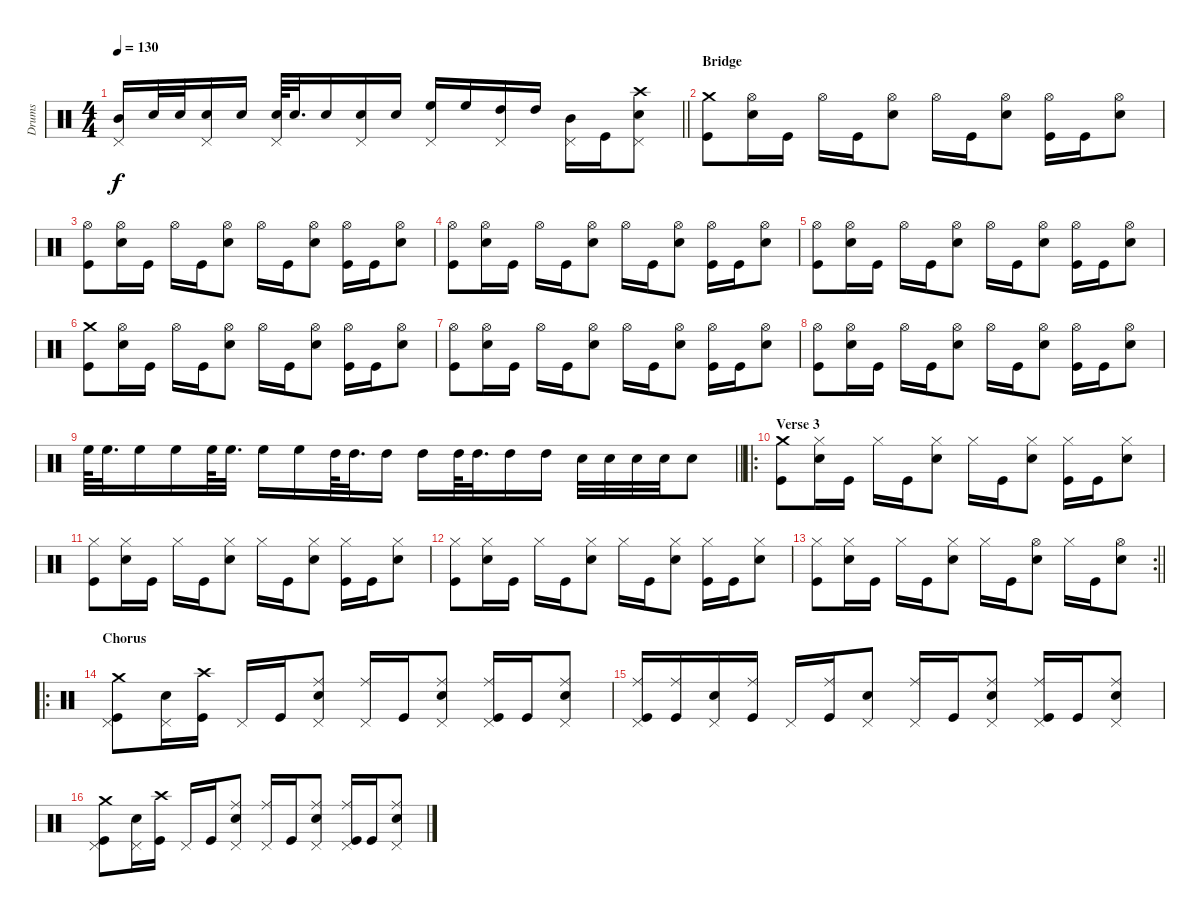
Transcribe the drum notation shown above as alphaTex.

\track ("Drums" "Drums") {instrument percussion}
\staff {score}
\articulation defaults
\ts (4 4)
\tempo 130
\clef neutral
\barLineRight lightlight
\ks c
("Mid Tom (hit)" "Pedal Hi-Hat (hit)").16{dy f} "Snare (hit) 2".32 "Snare (hit) 2".32 ("Snare (hit) 2" "Pedal Hi-Hat (hit)").16 "Snare (hit) 2".16 ("Snare (hit) 2" "Pedal Hi-Hat (hit)").64 "Snare (hit) 2".32{d} "Snare (hit) 2".16 ("Snare (hit) 2" "Pedal Hi-Hat (hit)").16 "Snare (hit) 2".16 ("High Floor Tom (hit)" "Pedal Hi-Hat (hit)").16 "High Floor Tom (hit)".16 ("High Tom (hit)" "Pedal Hi-Hat (hit)").16 "High Tom (hit)".16 ("Mid Tom (hit)" "Pedal Hi-Hat (hit)").16 "Kick (hit)".16 ("Crash high (hit)" "Snare (hit) 2" "Pedal Hi-Hat (hit)").8 |
\section ("" "Bridge")
("Crash medium (hit)" "Kick (hit)").8 ("Hi-Hat (open)" "Snare (hit) 2").16 "Kick (hit)".16 "Hi-Hat (open)".16 "Kick (hit)".16 ("Hi-Hat (open)" "Snare (hit) 2").8 "Hi-Hat (open)".16 "Kick (hit)".16 ("Hi-Hat (open)" "Snare (hit) 2").8 ("Hi-Hat (open)" "Kick (hit)").16 "Kick (hit)".16 ("Hi-Hat (open)" "Snare (hit) 2").8 |
("Hi-Hat (open)" "Kick (hit)").8 ("Hi-Hat (open)" "Snare (hit) 2").16 "Kick (hit)".16 "Hi-Hat (open)".16 "Kick (hit)".16 ("Hi-Hat (open)" "Snare (hit) 2").8 "Hi-Hat (open)".16 "Kick (hit)".16 ("Hi-Hat (open)" "Snare (hit) 2").8 ("Hi-Hat (open)" "Kick (hit)").16 "Kick (hit)".16 ("Hi-Hat (open)" "Snare (hit) 2").8 |
("Hi-Hat (open)" "Kick (hit)").8 ("Hi-Hat (open)" "Snare (hit) 2").16 "Kick (hit)".16 "Hi-Hat (open)".16 "Kick (hit)".16 ("Hi-Hat (open)" "Snare (hit) 2").8 "Hi-Hat (open)".16 "Kick (hit)".16 ("Hi-Hat (open)" "Snare (hit) 2").8 ("Hi-Hat (open)" "Kick (hit)").16 "Kick (hit)".16 ("Hi-Hat (open)" "Snare (hit) 2").8 |
("Hi-Hat (open)" "Kick (hit)").8 ("Hi-Hat (open)" "Snare (hit) 2").16 "Kick (hit)".16 "Hi-Hat (open)".16 "Kick (hit)".16 ("Hi-Hat (open)" "Snare (hit) 2").8 "Hi-Hat (open)".16 "Kick (hit)".16 ("Hi-Hat (open)" "Snare (hit) 2").8 ("Hi-Hat (open)" "Kick (hit)").16 "Kick (hit)".16 ("Hi-Hat (open)" "Snare (hit) 2").8 |
("Crash medium (hit)" "Kick (hit)").8 ("Hi-Hat (open)" "Snare (hit) 2").16 "Kick (hit)".16 "Hi-Hat (open)".16 "Kick (hit)".16 ("Hi-Hat (open)" "Snare (hit) 2").8 "Hi-Hat (open)".16 "Kick (hit)".16 ("Hi-Hat (open)" "Snare (hit) 2").8 ("Hi-Hat (open)" "Kick (hit)").16 "Kick (hit)".16 ("Hi-Hat (open)" "Snare (hit) 2").8 |
("Hi-Hat (open)" "Kick (hit)").8 ("Hi-Hat (open)" "Snare (hit) 2").16 "Kick (hit)".16 "Hi-Hat (open)".16 "Kick (hit)".16 ("Hi-Hat (open)" "Snare (hit) 2").8 "Hi-Hat (open)".16 "Kick (hit)".16 ("Hi-Hat (open)" "Snare (hit) 2").8 ("Hi-Hat (open)" "Kick (hit)").16 "Kick (hit)".16 ("Hi-Hat (open)" "Snare (hit) 2").8 |
("Hi-Hat (open)" "Kick (hit)").8 ("Hi-Hat (open)" "Snare (hit) 2").16 "Kick (hit)".16 "Hi-Hat (open)".16 "Kick (hit)".16 ("Hi-Hat (open)" "Snare (hit) 2").8 "Hi-Hat (open)".16 "Kick (hit)".16 ("Hi-Hat (open)" "Snare (hit) 2").8 ("Hi-Hat (open)" "Kick (hit)").16 "Kick (hit)".16 ("Hi-Hat (open)" "Snare (hit) 2").8 |
\barLineRight lightlight "High Floor Tom (hit)".64 "High Floor Tom (hit)".32{d} "High Floor Tom (hit)".16 "High Floor Tom (hit)".16 "High Floor Tom (hit)".64 "High Floor Tom (hit)".32{d} "High Floor Tom (hit)".16 "High Floor Tom (hit)".16 "High Tom (hit)".64 "High Tom (hit)".32{d} "High Tom (hit)".16 "High Tom (hit)".16 "High Tom (hit)".64 "High Tom (hit)".32{d} "High Tom (hit)".16 "High Tom (hit)".16 "Snare (hit) 2".32 "Snare (hit) 2".32 "Snare (hit) 2".32 "Snare (hit) 2".32 "Snare (hit) 2".8
|
\ro
\section ("" "Verse 3")
("Crash medium (hit)" "Kick (hit)").8 ("Hi-Hat (closed)" "Snare (hit) 2").16 "Kick (hit)".16 "Hi-Hat (closed)".16 "Kick (hit)".16 ("Hi-Hat (closed)" "Snare (hit) 2").8 "Hi-Hat (closed)".16 "Kick (hit)".16 ("Hi-Hat (closed)" "Snare (hit) 2").8 ("Hi-Hat (closed)" "Kick (hit)").16 "Kick (hit)".16 ("Hi-Hat (closed)" "Snare (hit) 2").8 |
("Hi-Hat (closed)" "Kick (hit)").8 ("Hi-Hat (closed)" "Snare (hit) 2").16 "Kick (hit)".16 "Hi-Hat (closed)".16 "Kick (hit)".16 ("Hi-Hat (closed)" "Snare (hit) 2").8 "Hi-Hat (closed)".16 "Kick (hit)".16 ("Hi-Hat (closed)" "Snare (hit) 2").8 ("Hi-Hat (closed)" "Kick (hit)").16 "Kick (hit)".16 ("Hi-Hat (closed)" "Snare (hit) 2").8 |
("Hi-Hat (closed)" "Kick (hit)").8 ("Hi-Hat (closed)" "Snare (hit) 2").16 "Kick (hit)".16 "Hi-Hat (closed)".16 "Kick (hit)".16 ("Hi-Hat (closed)" "Snare (hit) 2").8 "Hi-Hat (closed)".16 "Kick (hit)".16 ("Hi-Hat (closed)" "Snare (hit) 2").8 ("Hi-Hat (closed)" "Kick (hit)").16 "Kick (hit)".16 ("Hi-Hat (closed)" "Snare (hit) 2").8 |
\rc 2
\barLineRight lightlight
("Hi-Hat (closed)" "Kick (hit)").8 ("Hi-Hat (closed)" "Snare (hit) 2").16 "Kick (hit)".16 "Hi-Hat (closed)".16 "Kick (hit)".16 ("Hi-Hat (closed)" "Snare (hit) 2").8 "Hi-Hat (closed)".16 "Kick (hit)".16 ("Hi-Hat (open)" "Snare (hit) 2").8 "Hi-Hat (closed)".16 "Kick (hit)".16 ("Hi-Hat (open)" "Snare (hit) 2").8 |
\ro
\section ("" "Chorus")
("Crash medium (hit)" "Pedal Hi-Hat (hit)" "Kick (hit)").8 ("Snare (hit) 2" "Pedal Hi-Hat (hit)").16 ("Crash high (hit)" "Kick (hit)").16 "Pedal Hi-Hat (hit)".16 "Kick (hit)".16 ("Ride (middle)" "Snare (hit) 2" "Pedal Hi-Hat (hit)").8 ("Ride (middle)" "Pedal Hi-Hat (hit)").16 "Kick (hit)".16 ("Ride (middle)" "Snare (hit) 2" "Pedal Hi-Hat (hit)").8 ("Ride (middle)" "Pedal Hi-Hat (hit)" "Kick (hit)").16 "Kick (hit)".16 ("Ride (middle)" "Snare (hit) 2" "Pedal Hi-Hat (hit)").8 |
("Ride (middle)" "Pedal Hi-Hat (hit)" "Kick (hit)").16 ("Ride (middle)" "Kick (hit)").16 ("Snare (hit) 2" "Pedal Hi-Hat (hit)").16 ("Ride (middle)" "Kick (hit)").16 "Pedal Hi-Hat (hit)".16 ("Ride (middle)" "Kick (hit)").16 ("Snare (hit) 2" "Pedal Hi-Hat (hit)").8 ("Ride (middle)" "Pedal Hi-Hat (hit)").16 "Kick (hit)".16 ("Ride (middle)" "Snare (hit) 2" "Pedal Hi-Hat (hit)").8 ("Ride (middle)" "Pedal Hi-Hat (hit)" "Kick (hit)").16 "Kick (hit)".16 ("Ride (middle)" "Snare (hit) 2" "Pedal Hi-Hat (hit)").8 |
("Crash medium (hit)" "Pedal Hi-Hat (hit)" "Kick (hit)").8 ("Snare (hit) 2" "Pedal Hi-Hat (hit)").16 ("Crash high (hit)" "Kick (hit)").16 "Pedal Hi-Hat (hit)".16 "Kick (hit)".16 ("Ride (middle)" "Snare (hit) 2" "Pedal Hi-Hat (hit)").8 ("Ride (middle)" "Pedal Hi-Hat (hit)").16 "Kick (hit)".16 ("Ride (middle)" "Snare (hit) 2" "Pedal Hi-Hat (hit)").8 ("Ride (middle)" "Pedal Hi-Hat (hit)" "Kick (hit)").16 "Kick (hit)".16 ("Ride (middle)" "Snare (hit) 2" "Pedal Hi-Hat (hit)").8
